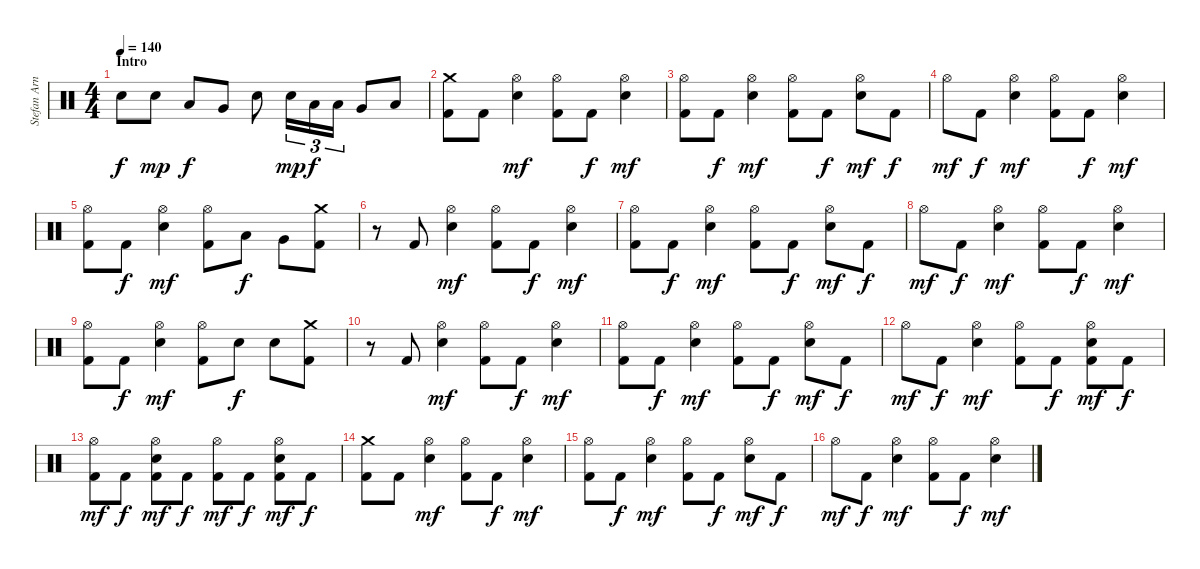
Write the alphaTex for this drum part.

\track ("Stefan Arnold" "Stefan Arn") {instrument percussion}
\staff {score}
\articulation defaults
\ts (4 4)
\section ("" "Intro")
\tempo 140
\clef neutral
\ks c "Electric Snare (hit)".8{dy f} "Electric Snare (hit)".8{dy mp} "Low Tom (hit)".8{dy f} "Very Low Tom (hit)".8 "Electric Snare (hit)".8 "Electric Snare (hit)".16{tu (3 2) dy mp} "Low Tom (hit)".16{tu (3 2) dy f} "Low Tom (hit)".16{tu (3 2)} "Very Low Tom (hit)".8 "Low Floor Tom (hit)".8
|
("Crash medium (hit)" "Kick (hit) 2").8 "Kick (hit) 2".8 ("Hi-Hat (open)" "Electric Snare (hit)").4{dy mf} ("Hi-Hat (open)" "Kick (hit) 2").8 "Kick (hit) 2".8{dy f} ("Hi-Hat (open)" "Electric Snare (hit)").4{dy mf} |
("Hi-Hat (open)" "Kick (hit) 2").8 "Kick (hit) 2".8{dy f} ("Hi-Hat (open)" "Electric Snare (hit)").4{dy mf} ("Hi-Hat (open)" "Kick (hit) 2").8 "Kick (hit) 2".8{dy f} ("Hi-Hat (open)" "Electric Snare (hit)").8{dy mf} "Kick (hit) 2".8{dy f} |
"Hi-Hat (open)".8{dy mf} "Kick (hit) 2".8{dy f} ("Hi-Hat (open)" "Electric Snare (hit)").4{dy mf} ("Hi-Hat (open)" "Kick (hit) 2").8 "Kick (hit) 2".8{dy f} ("Hi-Hat (open)" "Electric Snare (hit)").4{dy mf} |
("Hi-Hat (open)" "Kick (hit) 2").8 "Kick (hit) 2".8{dy f} ("Hi-Hat (open)" "Electric Snare (hit)").4{dy mf} ("Hi-Hat (open)" "Kick (hit) 2").8 "Low Tom (hit)".8{dy f} "Very Low Tom (hit)".8 ("Crash medium (hit)" "Kick (hit) 2").8 |
r.8 "Kick (hit) 2".8 ("Hi-Hat (open)" "Electric Snare (hit)").4{dy mf} ("Hi-Hat (open)" "Kick (hit) 2").8 "Kick (hit) 2".8{dy f} ("Hi-Hat (open)" "Electric Snare (hit)").4{dy mf} |
("Hi-Hat (open)" "Kick (hit) 2").8 "Kick (hit) 2".8{dy f} ("Hi-Hat (open)" "Electric Snare (hit)").4{dy mf} ("Hi-Hat (open)" "Kick (hit) 2").8 "Kick (hit) 2".8{dy f} ("Hi-Hat (open)" "Electric Snare (hit)").8{dy mf} "Kick (hit) 2".8{dy f} |
"Hi-Hat (open)".8{dy mf} "Kick (hit) 2".8{dy f} ("Hi-Hat (open)" "Electric Snare (hit)").4{dy mf} ("Hi-Hat (open)" "Kick (hit) 2").8 "Kick (hit) 2".8{dy f} ("Hi-Hat (open)" "Electric Snare (hit)").4{dy mf} |
("Hi-Hat (open)" "Kick (hit) 2").8 "Kick (hit) 2".8{dy f} ("Hi-Hat (open)" "Electric Snare (hit)").4{dy mf} ("Hi-Hat (open)" "Kick (hit) 2").8 "Electric Snare (hit)".8{dy f} "Electric Snare (hit)".8 ("Crash medium (hit)" "Kick (hit) 2").8 |
r.8 "Kick (hit) 2".8 ("Hi-Hat (open)" "Electric Snare (hit)").4{dy mf} ("Hi-Hat (open)" "Kick (hit) 2").8 "Kick (hit) 2".8{dy f} ("Hi-Hat (open)" "Electric Snare (hit)").4{dy mf} |
("Hi-Hat (open)" "Kick (hit) 2").8 "Kick (hit) 2".8{dy f} ("Hi-Hat (open)" "Electric Snare (hit)").4{dy mf} ("Hi-Hat (open)" "Kick (hit) 2").8 "Kick (hit) 2".8{dy f} ("Hi-Hat (open)" "Electric Snare (hit)").8{dy mf} "Kick (hit) 2".8{dy f} |
"Hi-Hat (open)".8{dy mf} "Kick (hit) 2".8{dy f} ("Hi-Hat (open)" "Electric Snare (hit)").4{dy mf} ("Hi-Hat (open)" "Kick (hit) 2").8 "Kick (hit) 2".8{dy f} ("Hi-Hat (open)" "Electric Snare (hit)" "Kick (hit) 2").8{dy mf} "Kick (hit) 2".8{dy f} |
("Hi-Hat (open)" "Kick (hit) 2").8{dy mf} "Kick (hit) 2".8{dy f} ("Hi-Hat (open)" "Electric Snare (hit)" "Kick (hit) 2").8{dy mf} "Kick (hit) 2".8{dy f} ("Hi-Hat (open)" "Kick (hit) 2").8{dy mf} "Kick (hit) 2".8{dy f} ("Hi-Hat (open)" "Electric Snare (hit)" "Kick (hit) 2").8{dy mf} "Kick (hit) 2".8{dy f} |
("Crash medium (hit)" "Kick (hit) 2").8 "Kick (hit) 2".8 ("Hi-Hat (open)" "Electric Snare (hit)").4{dy mf} ("Hi-Hat (open)" "Kick (hit) 2").8 "Kick (hit) 2".8{dy f} ("Hi-Hat (open)" "Electric Snare (hit)").4{dy mf} |
("Hi-Hat (open)" "Kick (hit) 2").8 "Kick (hit) 2".8{dy f} ("Hi-Hat (open)" "Electric Snare (hit)").4{dy mf} ("Hi-Hat (open)" "Kick (hit) 2").8 "Kick (hit) 2".8{dy f} ("Hi-Hat (open)" "Electric Snare (hit)").8{dy mf} "Kick (hit) 2".8{dy f} |
"Hi-Hat (open)".8{dy mf} "Kick (hit) 2".8{dy f} ("Hi-Hat (open)" "Electric Snare (hit)").4{dy mf} ("Hi-Hat (open)" "Kick (hit) 2").8 "Kick (hit) 2".8{dy f} ("Hi-Hat (open)" "Electric Snare (hit)").4{dy mf}
